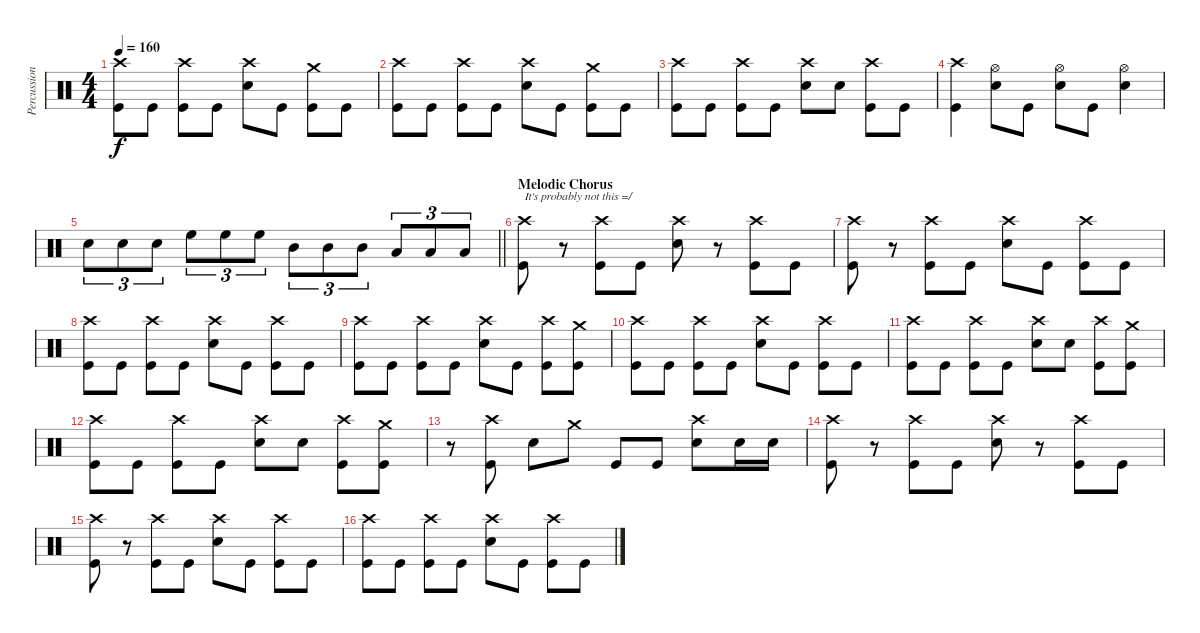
\track ("Percussions" "Percussion") {instrument percussion}
\staff {score}
\articulation defaults
\ts (4 4)
\tempo 160
\clef neutral
\ks c
("Kick (hit)" "Crash high (hit)").8{dy f} "Kick (hit)".8 ("Kick (hit)" "Crash high (hit)").8 "Kick (hit)".8 ("Snare (hit) 2" "Crash high (hit)").8 "Kick (hit)".8 ("Kick (hit)" "Crash medium (hit)").8 "Kick (hit)".8 |
("Kick (hit)" "Crash high (hit)").8 "Kick (hit)".8 ("Kick (hit)" "Crash high (hit)").8 "Kick (hit)".8 ("Snare (hit) 2" "Crash high (hit)").8 "Kick (hit)".8 ("Kick (hit)" "Crash medium (hit)").8 "Kick (hit)".8 |
("Kick (hit)" "Crash high (hit)").8 "Kick (hit)".8 ("Kick (hit)" "Crash high (hit)").8 "Kick (hit)".8 ("Snare (hit) 2" "Crash high (hit)").8 "Snare (hit) 2".8 ("Kick (hit)" "Crash high (hit)").8 "Kick (hit)".8 |
("Kick (hit)" "Crash high (hit)").4 ("Snare (hit) 2" "Hi-Hat (open)").8 "Kick (hit)".8 ("Snare (hit) 2" "Hi-Hat (open)").8 "Kick (hit)".8 ("Snare (hit) 2" "Hi-Hat (open)").4 |
\barLineRight lightlight "Snare (hit) 2".8{tu (3 2)} "Snare (hit) 2".8{tu (3 2)} "Snare (hit) 2".8{tu (3 2)} "High Floor Tom (hit)".8{tu (3 2)} "High Floor Tom (hit)".8{tu (3 2)} "High Floor Tom (hit)".8{tu (3 2)} "Mid Tom (hit)".8{tu (3 2)} "Mid Tom (hit)".8{tu (3 2)} "Mid Tom (hit)".8{tu (3 2)} "Low Tom (hit)".8{tu (3 2)} "Low Tom (hit)".8{tu (3 2)} "Low Tom (hit)".8{tu (3 2)}
|
\section ("" "Melodic Chorus")
("Kick (hit)" "Crash high (hit)").8{txt "It's probably not this =/"} r.8 ("Kick (hit)" "Crash high (hit)").8 "Kick (hit)".8 ("Snare (hit) 2" "Crash high (hit)").8 r.8 ("Kick (hit)" "Crash high (hit)").8 "Kick (hit)".8 |
("Kick (hit)" "Crash high (hit)").8 r.8 ("Kick (hit)" "Crash high (hit)").8 "Kick (hit)".8 ("Snare (hit) 2" "Crash high (hit)").8 "Kick (hit)".8 ("Kick (hit)" "Crash high (hit)").8 "Kick (hit)".8 |
("Kick (hit)" "Crash high (hit)").8 "Kick (hit)".8 ("Kick (hit)" "Crash high (hit)").8 "Kick (hit)".8 ("Snare (hit) 2" "Crash high (hit)").8 "Kick (hit)".8 ("Kick (hit)" "Crash high (hit)").8 "Kick (hit)".8 |
("Kick (hit)" "Crash high (hit)").8 "Kick (hit)".8 ("Kick (hit)" "Crash high (hit)").8 "Kick (hit)".8 ("Snare (hit) 2" "Crash high (hit)").8 "Kick (hit)".8 ("Kick (hit)" "Crash high (hit)").8 ("Kick (hit)" "Crash medium (hit)").8 |
("Kick (hit)" "Crash high (hit)").8 "Kick (hit)".8 ("Kick (hit)" "Crash high (hit)").8 "Kick (hit)".8 ("Snare (hit) 2" "Crash high (hit)").8 "Kick (hit)".8 ("Kick (hit)" "Crash high (hit)").8 "Kick (hit)".8 |
("Kick (hit)" "Crash high (hit)").8 "Kick (hit)".8 ("Kick (hit)" "Crash high (hit)").8 "Kick (hit)".8 ("Snare (hit) 2" "Crash high (hit)").8 "Snare (hit) 2".8 ("Kick (hit)" "Crash high (hit)").8 ("Kick (hit)" "Crash medium (hit)").8 |
("Kick (hit)" "Crash high (hit)").8 "Kick (hit)".8 ("Kick (hit)" "Crash high (hit)").8 "Kick (hit)".8 ("Snare (hit) 2" "Crash high (hit)").8 "Snare (hit) 2".8 ("Kick (hit)" "Crash high (hit)").8 ("Kick (hit)" "Crash medium (hit)").8 |
r.8 ("Kick (hit)" "Crash high (hit)").8 "Snare (hit) 2".8 "Crash medium (hit)".8 "Kick (hit)".8 "Kick (hit)".8 ("Snare (hit) 2" "Crash high (hit)").8 "Snare (hit) 2".16 "Snare (hit) 2".16 |
("Kick (hit)" "Crash high (hit)").8 r.8 ("Kick (hit)" "Crash high (hit)").8 "Kick (hit)".8 ("Snare (hit) 2" "Crash high (hit)").8 r.8 ("Kick (hit)" "Crash high (hit)").8 "Kick (hit)".8 |
("Kick (hit)" "Crash high (hit)").8 r.8 ("Kick (hit)" "Crash high (hit)").8 "Kick (hit)".8 ("Snare (hit) 2" "Crash high (hit)").8 "Kick (hit)".8 ("Kick (hit)" "Crash high (hit)").8 "Kick (hit)".8 |
("Kick (hit)" "Crash high (hit)").8 "Kick (hit)".8 ("Kick (hit)" "Crash high (hit)").8 "Kick (hit)".8 ("Snare (hit) 2" "Crash high (hit)").8 "Kick (hit)".8 ("Kick (hit)" "Crash high (hit)").8 "Kick (hit)".8
